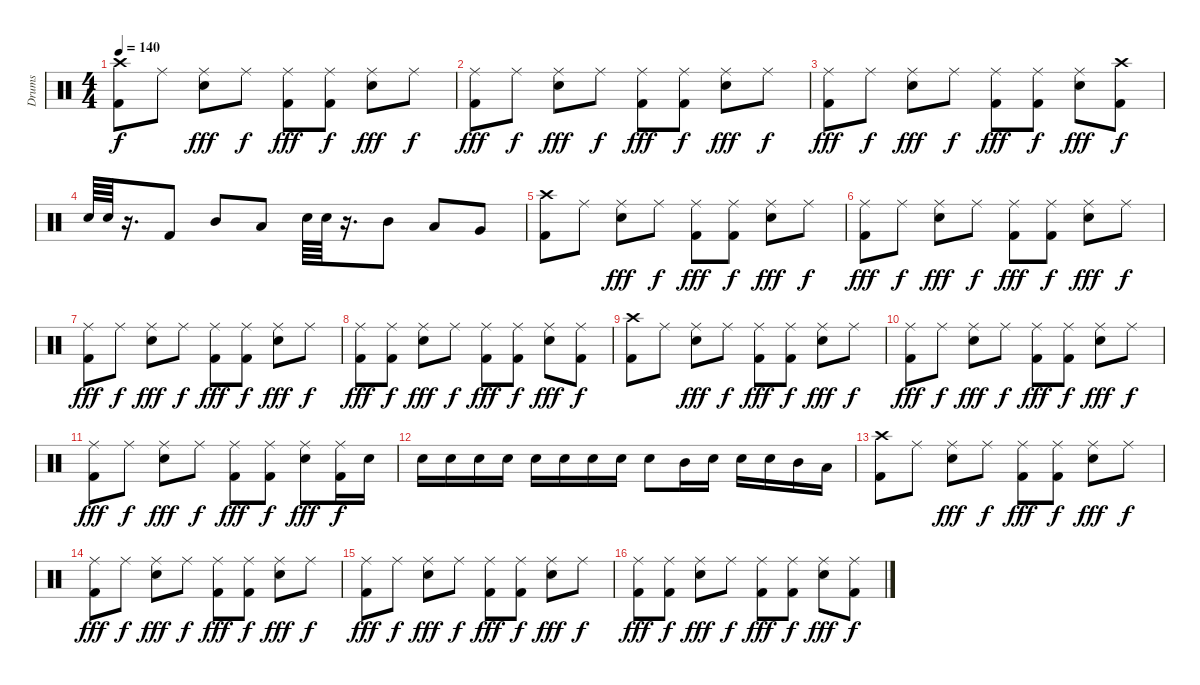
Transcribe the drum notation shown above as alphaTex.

\track ("Drums" "Drums") {instrument percussion}
\staff {score}
\articulation defaults
\ts (4 4)
\tempo 140
\clef neutral
\ks c
("Crash high (hit)" "Kick (hit) 2").8{dy f} "Ride (middle)".8 ("Ride (middle)" "Snare (hit) 2").8{dy fff} "Ride (middle)".8{dy f} ("Ride (middle)" "Kick (hit) 2").8{dy fff} ("Ride (middle)" "Kick (hit) 2").8{dy f} ("Ride (middle)" "Snare (hit) 2").8{dy fff} "Ride (middle)".8{dy f} |
("Ride (middle)" "Kick (hit) 2").8{dy fff} "Ride (middle)".8{dy f} ("Ride (middle)" "Snare (hit) 2").8{dy fff} "Ride (middle)".8{dy f} ("Ride (middle)" "Kick (hit) 2").8{dy fff} ("Ride (middle)" "Kick (hit) 2").8{dy f} ("Ride (middle)" "Snare (hit) 2").8{dy fff} "Ride (middle)".8{dy f} |
("Ride (middle)" "Kick (hit) 2").8{dy fff} "Ride (middle)".8{dy f} ("Ride (middle)" "Snare (hit) 2").8{dy fff} "Ride (middle)".8{dy f} ("Ride (middle)" "Kick (hit) 2").8{dy fff} ("Ride (middle)" "Kick (hit) 2").8{dy f} ("Ride (middle)" "Snare (hit) 2").8{dy fff} ("Crash high (hit)" "Kick (hit) 2").8{dy f} |
"Snare (hit) 2".64 "Snare (hit) 2".64 r.16{d} "Kick (hit) 2".8 "Mid Tom (hit)".8 "Low Tom (hit)".8 "Snare (hit) 2".64 "Snare (hit) 2".64 r.16{d} "Mid Tom (hit)".8 "Low Tom (hit)".8 "Very Low Tom (hit)".8 |
("Crash high (hit)" "Kick (hit) 2").8 "Ride (middle)".8 ("Ride (middle)" "Snare (hit) 2").8{dy fff} "Ride (middle)".8{dy f} ("Ride (middle)" "Kick (hit) 2").8{dy fff} ("Ride (middle)" "Kick (hit) 2").8{dy f} ("Ride (middle)" "Snare (hit) 2").8{dy fff} "Ride (middle)".8{dy f} |
("Ride (middle)" "Kick (hit) 2").8{dy fff} "Ride (middle)".8{dy f} ("Ride (middle)" "Snare (hit) 2").8{dy fff} "Ride (middle)".8{dy f} ("Ride (middle)" "Kick (hit) 2").8{dy fff} ("Ride (middle)" "Kick (hit) 2").8{dy f} ("Ride (middle)" "Snare (hit) 2").8{dy fff} "Ride (middle)".8{dy f} |
("Ride (middle)" "Kick (hit) 2").8{dy fff} "Ride (middle)".8{dy f} ("Ride (middle)" "Snare (hit) 2").8{dy fff} "Ride (middle)".8{dy f} ("Ride (middle)" "Kick (hit) 2").8{dy fff} ("Ride (middle)" "Kick (hit) 2").8{dy f} ("Ride (middle)" "Snare (hit) 2").8{dy fff} "Ride (middle)".8{dy f} |
("Ride (middle)" "Kick (hit) 2").8{dy fff} ("Ride (middle)" "Kick (hit) 2").8{dy f} ("Ride (middle)" "Snare (hit) 2").8{dy fff} "Ride (middle)".8{dy f} ("Ride (middle)" "Kick (hit) 2").8{dy fff} ("Ride (middle)" "Kick (hit) 2").8{dy f} ("Ride (middle)" "Snare (hit) 2").8{dy fff} ("Ride (middle)" "Kick (hit) 2").8{dy f} |
("Crash high (hit)" "Kick (hit) 2").8 "Ride (middle)".8 ("Ride (middle)" "Snare (hit) 2").8{dy fff} "Ride (middle)".8{dy f} ("Ride (middle)" "Kick (hit) 2").8{dy fff} ("Ride (middle)" "Kick (hit) 2").8{dy f} ("Ride (middle)" "Snare (hit) 2").8{dy fff} "Ride (middle)".8{dy f} |
("Ride (middle)" "Kick (hit) 2").8{dy fff} "Ride (middle)".8{dy f} ("Ride (middle)" "Snare (hit) 2").8{dy fff} "Ride (middle)".8{dy f} ("Ride (middle)" "Kick (hit) 2").8{dy fff} ("Ride (middle)" "Kick (hit) 2").8{dy f} ("Ride (middle)" "Snare (hit) 2").8{dy fff} "Ride (middle)".8{dy f} |
("Ride (middle)" "Kick (hit) 2").8{dy fff} "Ride (middle)".8{dy f} ("Ride (middle)" "Snare (hit) 2").8{dy fff} "Ride (middle)".8{dy f} ("Ride (middle)" "Kick (hit) 2").8{dy fff} ("Ride (middle)" "Kick (hit) 2").8{dy f} ("Ride (middle)" "Snare (hit) 2").8{dy fff} ("Ride (middle)" "Kick (hit) 2").16{dy f} "Snare (hit) 2".16 |
"Snare (hit) 2".16 "Snare (hit) 2".16 "Snare (hit) 2".16 "Snare (hit) 2".16 "Snare (hit) 2".16 "Snare (hit) 2".16 "Snare (hit) 2".16 "Snare (hit) 2".16 "Snare (hit) 2".8 "Mid Tom (hit)".16 "Snare (hit) 2".16 "Snare (hit) 2".16 "Snare (hit) 2".16 "Mid Tom (hit)".16 "Low Tom (hit)".16 |
("Crash high (hit)" "Kick (hit) 2").8 "Ride (middle)".8 ("Ride (middle)" "Snare (hit) 2").8{dy fff} "Ride (middle)".8{dy f} ("Ride (middle)" "Kick (hit) 2").8{dy fff} ("Ride (middle)" "Kick (hit) 2").8{dy f} ("Ride (middle)" "Snare (hit) 2").8{dy fff} "Ride (middle)".8{dy f} |
("Ride (middle)" "Kick (hit) 2").8{dy fff} "Ride (middle)".8{dy f} ("Ride (middle)" "Snare (hit) 2").8{dy fff} "Ride (middle)".8{dy f} ("Ride (middle)" "Kick (hit) 2").8{dy fff} ("Ride (middle)" "Kick (hit) 2").8{dy f} ("Ride (middle)" "Snare (hit) 2").8{dy fff} "Ride (middle)".8{dy f} |
("Ride (middle)" "Kick (hit) 2").8{dy fff} "Ride (middle)".8{dy f} ("Ride (middle)" "Snare (hit) 2").8{dy fff} "Ride (middle)".8{dy f} ("Ride (middle)" "Kick (hit) 2").8{dy fff} ("Ride (middle)" "Kick (hit) 2").8{dy f} ("Ride (middle)" "Snare (hit) 2").8{dy fff} "Ride (middle)".8{dy f} |
("Ride (middle)" "Kick (hit) 2").8{dy fff} ("Ride (middle)" "Kick (hit) 2").8{dy f} ("Ride (middle)" "Snare (hit) 2").8{dy fff} "Ride (middle)".8{dy f} ("Ride (middle)" "Kick (hit) 2").8{dy fff} ("Ride (middle)" "Kick (hit) 2").8{dy f} ("Ride (middle)" "Snare (hit) 2").8{dy fff} ("Ride (middle)" "Kick (hit) 2").8{dy f}
